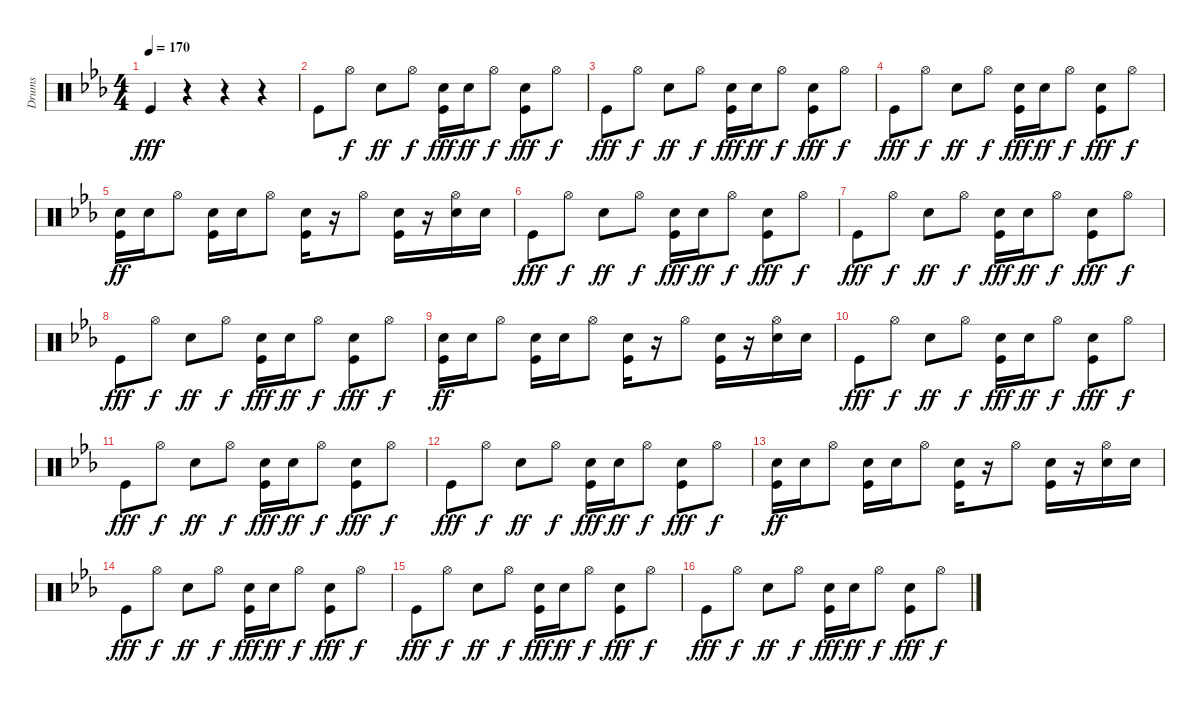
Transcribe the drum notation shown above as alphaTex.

\track ("Drums" "Drums") {instrument percussion}
\staff {score}
\articulation defaults
\ts (4 4)
\tempo 170
\clef neutral
\ks cminor "Kick (hit)".4{dy fff}
r.4 r.4 r.4 |
"Kick (hit)".8{volume 16} "Hi-Hat (open)".8{dy f} "Snare (hit) 2".8{dy ff} "Hi-Hat (open)".8{dy f} ("Snare (hit) 2" "Kick (hit)").16{dy fff} "Snare (hit) 2".16{dy ff} "Hi-Hat (open)".8{dy f} ("Snare (hit) 2" "Kick (hit)").8{dy fff} "Hi-Hat (open)".8{dy f} |
"Kick (hit)".8{dy fff} "Hi-Hat (open)".8{dy f} "Snare (hit) 2".8{dy ff} "Hi-Hat (open)".8{dy f} ("Snare (hit) 2" "Kick (hit)").16{dy fff} "Snare (hit) 2".16{dy ff} "Hi-Hat (open)".8{dy f} ("Snare (hit) 2" "Kick (hit)").8{dy fff} "Hi-Hat (open)".8{dy f} |
"Kick (hit)".8{dy fff} "Hi-Hat (open)".8{dy f} "Snare (hit) 2".8{dy ff} "Hi-Hat (open)".8{dy f} ("Snare (hit) 2" "Kick (hit)").16{dy fff} "Snare (hit) 2".16{dy ff} "Hi-Hat (open)".8{dy f} ("Snare (hit) 2" "Kick (hit)").8{dy fff} "Hi-Hat (open)".8{dy f} |
("Snare (hit) 2" "Kick (hit)").16{dy ff} "Snare (hit) 2".16 "Hi-Hat (open)".8 ("Snare (hit) 2" "Kick (hit)").16 "Snare (hit) 2".16 "Hi-Hat (open)".8 ("Snare (hit) 2" "Kick (hit)").16 r.16 "Hi-Hat (open)".8 ("Snare (hit) 2" "Kick (hit)").16 r.16 ("Hi-Hat (open)" "Snare (hit) 2").16 "Snare (hit) 2".16 |
"Kick (hit)".8{dy fff} "Hi-Hat (open)".8{dy f} "Snare (hit) 2".8{dy ff} "Hi-Hat (open)".8{dy f} ("Snare (hit) 2" "Kick (hit)").16{dy fff} "Snare (hit) 2".16{dy ff} "Hi-Hat (open)".8{dy f} ("Snare (hit) 2" "Kick (hit)").8{dy fff} "Hi-Hat (open)".8{dy f} |
"Kick (hit)".8{dy fff} "Hi-Hat (open)".8{dy f} "Snare (hit) 2".8{dy ff} "Hi-Hat (open)".8{dy f} ("Snare (hit) 2" "Kick (hit)").16{dy fff} "Snare (hit) 2".16{dy ff} "Hi-Hat (open)".8{dy f} ("Snare (hit) 2" "Kick (hit)").8{dy fff} "Hi-Hat (open)".8{dy f} |
"Kick (hit)".8{dy fff} "Hi-Hat (open)".8{dy f} "Snare (hit) 2".8{dy ff} "Hi-Hat (open)".8{dy f} ("Snare (hit) 2" "Kick (hit)").16{dy fff} "Snare (hit) 2".16{dy ff} "Hi-Hat (open)".8{dy f} ("Snare (hit) 2" "Kick (hit)").8{dy fff} "Hi-Hat (open)".8{dy f} |
("Snare (hit) 2" "Kick (hit)").16{dy ff} "Snare (hit) 2".16 "Hi-Hat (open)".8 ("Snare (hit) 2" "Kick (hit)").16 "Snare (hit) 2".16 "Hi-Hat (open)".8 ("Snare (hit) 2" "Kick (hit)").16 r.16 "Hi-Hat (open)".8 ("Snare (hit) 2" "Kick (hit)").16 r.16 ("Hi-Hat (open)" "Snare (hit) 2").16 "Snare (hit) 2".16 |
"Kick (hit)".8{dy fff} "Hi-Hat (open)".8{dy f} "Snare (hit) 2".8{dy ff} "Hi-Hat (open)".8{dy f} ("Snare (hit) 2" "Kick (hit)").16{dy fff} "Snare (hit) 2".16{dy ff} "Hi-Hat (open)".8{dy f} ("Snare (hit) 2" "Kick (hit)").8{dy fff} "Hi-Hat (open)".8{dy f} |
"Kick (hit)".8{dy fff} "Hi-Hat (open)".8{dy f} "Snare (hit) 2".8{dy ff} "Hi-Hat (open)".8{dy f} ("Snare (hit) 2" "Kick (hit)").16{dy fff} "Snare (hit) 2".16{dy ff} "Hi-Hat (open)".8{dy f} ("Snare (hit) 2" "Kick (hit)").8{dy fff} "Hi-Hat (open)".8{dy f} |
"Kick (hit)".8{dy fff} "Hi-Hat (open)".8{dy f} "Snare (hit) 2".8{dy ff} "Hi-Hat (open)".8{dy f} ("Snare (hit) 2" "Kick (hit)").16{dy fff} "Snare (hit) 2".16{dy ff} "Hi-Hat (open)".8{dy f} ("Snare (hit) 2" "Kick (hit)").8{dy fff} "Hi-Hat (open)".8{dy f} |
("Snare (hit) 2" "Kick (hit)").16{dy ff} "Snare (hit) 2".16 "Hi-Hat (open)".8 ("Snare (hit) 2" "Kick (hit)").16 "Snare (hit) 2".16 "Hi-Hat (open)".8 ("Snare (hit) 2" "Kick (hit)").16 r.16 "Hi-Hat (open)".8 ("Snare (hit) 2" "Kick (hit)").16 r.16 ("Hi-Hat (open)" "Snare (hit) 2").16 "Snare (hit) 2".16 |
"Kick (hit)".8{dy fff} "Hi-Hat (open)".8{dy f} "Snare (hit) 2".8{dy ff} "Hi-Hat (open)".8{dy f} ("Snare (hit) 2" "Kick (hit)").16{dy fff} "Snare (hit) 2".16{dy ff} "Hi-Hat (open)".8{dy f} ("Snare (hit) 2" "Kick (hit)").8{dy fff} "Hi-Hat (open)".8{dy f} |
"Kick (hit)".8{dy fff} "Hi-Hat (open)".8{dy f} "Snare (hit) 2".8{dy ff} "Hi-Hat (open)".8{dy f} ("Snare (hit) 2" "Kick (hit)").16{dy fff} "Snare (hit) 2".16{dy ff} "Hi-Hat (open)".8{dy f} ("Snare (hit) 2" "Kick (hit)").8{dy fff} "Hi-Hat (open)".8{dy f} |
"Kick (hit)".8{dy fff} "Hi-Hat (open)".8{dy f} "Snare (hit) 2".8{dy ff} "Hi-Hat (open)".8{dy f} ("Snare (hit) 2" "Kick (hit)").16{dy fff} "Snare (hit) 2".16{dy ff} "Hi-Hat (open)".8{dy f} ("Snare (hit) 2" "Kick (hit)").8{dy fff} "Hi-Hat (open)".8{dy f}
